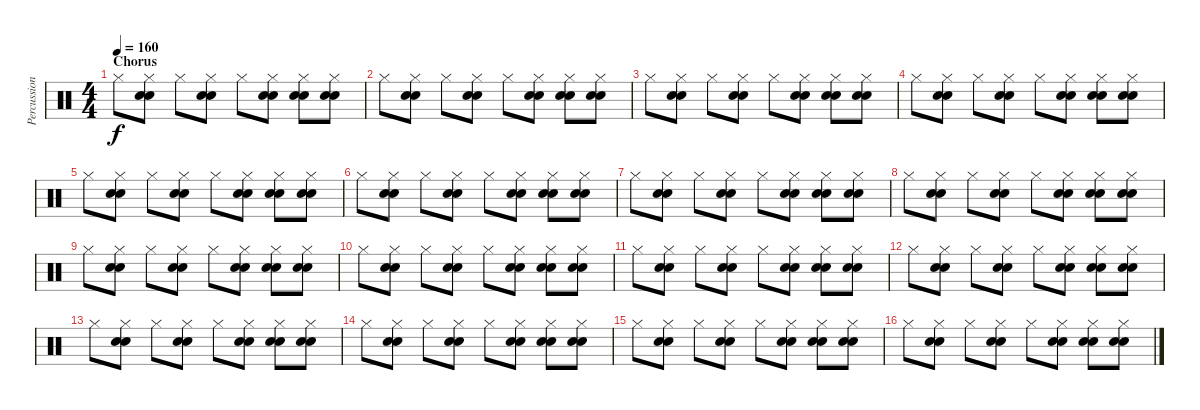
\track ("Percussion" "Percussion") {instrument percussion}
\staff {score}
\articulation defaults
\ts (4 4)
\section ("" "Chorus")
\tempo 160
\clef neutral
\ks c "Hi-Hat (closed)".8{dy f}
("Hi-Hat (closed)" "Electric Snare (hit)" "Electric Snare (hit)").8 "Hi-Hat (closed)".8 ("Hi-Hat (closed)" "Electric Snare (hit)" "Electric Snare (hit)").8 "Hi-Hat (closed)".8 ("Hi-Hat (closed)" "Electric Snare (hit)" "Electric Snare (hit)").8 ("Hi-Hat (closed)" "Electric Snare (hit)" "Electric Snare (hit)").8 ("Hi-Hat (closed)" "Electric Snare (hit)" "Electric Snare (hit)").8 |
"Hi-Hat (closed)".8 ("Hi-Hat (closed)" "Electric Snare (hit)" "Electric Snare (hit)").8 "Hi-Hat (closed)".8 ("Hi-Hat (closed)" "Electric Snare (hit)" "Electric Snare (hit)").8 "Hi-Hat (closed)".8 ("Hi-Hat (closed)" "Electric Snare (hit)" "Electric Snare (hit)").8 ("Hi-Hat (closed)" "Electric Snare (hit)" "Electric Snare (hit)").8 ("Hi-Hat (closed)" "Electric Snare (hit)" "Electric Snare (hit)").8 |
"Hi-Hat (closed)".8 ("Hi-Hat (closed)" "Electric Snare (hit)" "Electric Snare (hit)").8 "Hi-Hat (closed)".8 ("Hi-Hat (closed)" "Electric Snare (hit)" "Electric Snare (hit)").8 "Hi-Hat (closed)".8 ("Hi-Hat (closed)" "Electric Snare (hit)" "Electric Snare (hit)").8 ("Hi-Hat (closed)" "Electric Snare (hit)" "Electric Snare (hit)").8 ("Hi-Hat (closed)" "Electric Snare (hit)" "Electric Snare (hit)").8 |
"Hi-Hat (closed)".8 ("Hi-Hat (closed)" "Electric Snare (hit)" "Electric Snare (hit)").8 "Hi-Hat (closed)".8 ("Hi-Hat (closed)" "Electric Snare (hit)" "Electric Snare (hit)").8 "Hi-Hat (closed)".8 ("Hi-Hat (closed)" "Electric Snare (hit)" "Electric Snare (hit)").8 ("Hi-Hat (closed)" "Electric Snare (hit)" "Electric Snare (hit)").8 ("Hi-Hat (closed)" "Electric Snare (hit)" "Electric Snare (hit)").8 |
"Hi-Hat (closed)".8 ("Hi-Hat (closed)" "Electric Snare (hit)" "Electric Snare (hit)").8 "Hi-Hat (closed)".8 ("Hi-Hat (closed)" "Electric Snare (hit)" "Electric Snare (hit)").8 "Hi-Hat (closed)".8 ("Hi-Hat (closed)" "Electric Snare (hit)" "Electric Snare (hit)").8 ("Hi-Hat (closed)" "Electric Snare (hit)" "Electric Snare (hit)").8 ("Hi-Hat (closed)" "Electric Snare (hit)" "Electric Snare (hit)").8 |
"Hi-Hat (closed)".8 ("Hi-Hat (closed)" "Electric Snare (hit)" "Electric Snare (hit)").8 "Hi-Hat (closed)".8 ("Hi-Hat (closed)" "Electric Snare (hit)" "Electric Snare (hit)").8 "Hi-Hat (closed)".8 ("Hi-Hat (closed)" "Electric Snare (hit)" "Electric Snare (hit)").8 ("Hi-Hat (closed)" "Electric Snare (hit)" "Electric Snare (hit)").8 ("Hi-Hat (closed)" "Electric Snare (hit)" "Electric Snare (hit)").8 |
"Hi-Hat (closed)".8 ("Hi-Hat (closed)" "Electric Snare (hit)" "Electric Snare (hit)").8 "Hi-Hat (closed)".8 ("Hi-Hat (closed)" "Electric Snare (hit)" "Electric Snare (hit)").8 "Hi-Hat (closed)".8 ("Hi-Hat (closed)" "Electric Snare (hit)" "Electric Snare (hit)").8 ("Hi-Hat (closed)" "Electric Snare (hit)" "Electric Snare (hit)").8 ("Hi-Hat (closed)" "Electric Snare (hit)" "Electric Snare (hit)").8 |
"Hi-Hat (closed)".8 ("Hi-Hat (closed)" "Electric Snare (hit)" "Electric Snare (hit)").8 "Hi-Hat (closed)".8 ("Hi-Hat (closed)" "Electric Snare (hit)" "Electric Snare (hit)").8 "Hi-Hat (closed)".8 ("Hi-Hat (closed)" "Electric Snare (hit)" "Electric Snare (hit)").8 ("Hi-Hat (closed)" "Electric Snare (hit)" "Electric Snare (hit)").8 ("Hi-Hat (closed)" "Electric Snare (hit)" "Electric Snare (hit)").8 |
"Hi-Hat (closed)".8 ("Hi-Hat (closed)" "Electric Snare (hit)" "Electric Snare (hit)").8 "Hi-Hat (closed)".8 ("Hi-Hat (closed)" "Electric Snare (hit)" "Electric Snare (hit)").8 "Hi-Hat (closed)".8 ("Hi-Hat (closed)" "Electric Snare (hit)" "Electric Snare (hit)").8 ("Hi-Hat (closed)" "Electric Snare (hit)" "Electric Snare (hit)").8 ("Hi-Hat (closed)" "Electric Snare (hit)" "Electric Snare (hit)").8 |
"Hi-Hat (closed)".8 ("Hi-Hat (closed)" "Electric Snare (hit)" "Electric Snare (hit)").8 "Hi-Hat (closed)".8 ("Hi-Hat (closed)" "Electric Snare (hit)" "Electric Snare (hit)").8 "Hi-Hat (closed)".8 ("Hi-Hat (closed)" "Electric Snare (hit)" "Electric Snare (hit)").8 ("Hi-Hat (closed)" "Electric Snare (hit)" "Electric Snare (hit)").8 ("Hi-Hat (closed)" "Electric Snare (hit)" "Electric Snare (hit)").8 |
"Hi-Hat (closed)".8 ("Hi-Hat (closed)" "Electric Snare (hit)" "Electric Snare (hit)").8 "Hi-Hat (closed)".8 ("Hi-Hat (closed)" "Electric Snare (hit)" "Electric Snare (hit)").8 "Hi-Hat (closed)".8 ("Hi-Hat (closed)" "Electric Snare (hit)" "Electric Snare (hit)").8 ("Hi-Hat (closed)" "Electric Snare (hit)" "Electric Snare (hit)").8 ("Hi-Hat (closed)" "Electric Snare (hit)" "Electric Snare (hit)").8 |
"Hi-Hat (closed)".8 ("Hi-Hat (closed)" "Electric Snare (hit)" "Electric Snare (hit)").8 "Hi-Hat (closed)".8 ("Hi-Hat (closed)" "Electric Snare (hit)" "Electric Snare (hit)").8 "Hi-Hat (closed)".8 ("Hi-Hat (closed)" "Electric Snare (hit)" "Electric Snare (hit)").8 ("Hi-Hat (closed)" "Electric Snare (hit)" "Electric Snare (hit)").8 ("Hi-Hat (closed)" "Electric Snare (hit)" "Electric Snare (hit)").8 |
"Hi-Hat (closed)".8 ("Hi-Hat (closed)" "Electric Snare (hit)" "Electric Snare (hit)").8 "Hi-Hat (closed)".8 ("Hi-Hat (closed)" "Electric Snare (hit)" "Electric Snare (hit)").8 "Hi-Hat (closed)".8 ("Hi-Hat (closed)" "Electric Snare (hit)" "Electric Snare (hit)").8 ("Hi-Hat (closed)" "Electric Snare (hit)" "Electric Snare (hit)").8 ("Hi-Hat (closed)" "Electric Snare (hit)" "Electric Snare (hit)").8 |
"Hi-Hat (closed)".8 ("Hi-Hat (closed)" "Electric Snare (hit)" "Electric Snare (hit)").8 "Hi-Hat (closed)".8 ("Hi-Hat (closed)" "Electric Snare (hit)" "Electric Snare (hit)").8 "Hi-Hat (closed)".8 ("Hi-Hat (closed)" "Electric Snare (hit)" "Electric Snare (hit)").8 ("Hi-Hat (closed)" "Electric Snare (hit)" "Electric Snare (hit)").8 ("Hi-Hat (closed)" "Electric Snare (hit)" "Electric Snare (hit)").8 |
"Hi-Hat (closed)".8 ("Hi-Hat (closed)" "Electric Snare (hit)" "Electric Snare (hit)").8 "Hi-Hat (closed)".8 ("Hi-Hat (closed)" "Electric Snare (hit)" "Electric Snare (hit)").8 "Hi-Hat (closed)".8 ("Hi-Hat (closed)" "Electric Snare (hit)" "Electric Snare (hit)").8 ("Hi-Hat (closed)" "Electric Snare (hit)" "Electric Snare (hit)").8 ("Hi-Hat (closed)" "Electric Snare (hit)" "Electric Snare (hit)").8 |
"Hi-Hat (closed)".8 ("Hi-Hat (closed)" "Electric Snare (hit)" "Electric Snare (hit)").8 "Hi-Hat (closed)".8 ("Hi-Hat (closed)" "Electric Snare (hit)" "Electric Snare (hit)").8 "Hi-Hat (closed)".8 ("Hi-Hat (closed)" "Electric Snare (hit)" "Electric Snare (hit)").8 ("Hi-Hat (closed)" "Electric Snare (hit)" "Electric Snare (hit)").8 ("Hi-Hat (closed)" "Electric Snare (hit)" "Electric Snare (hit)").8
